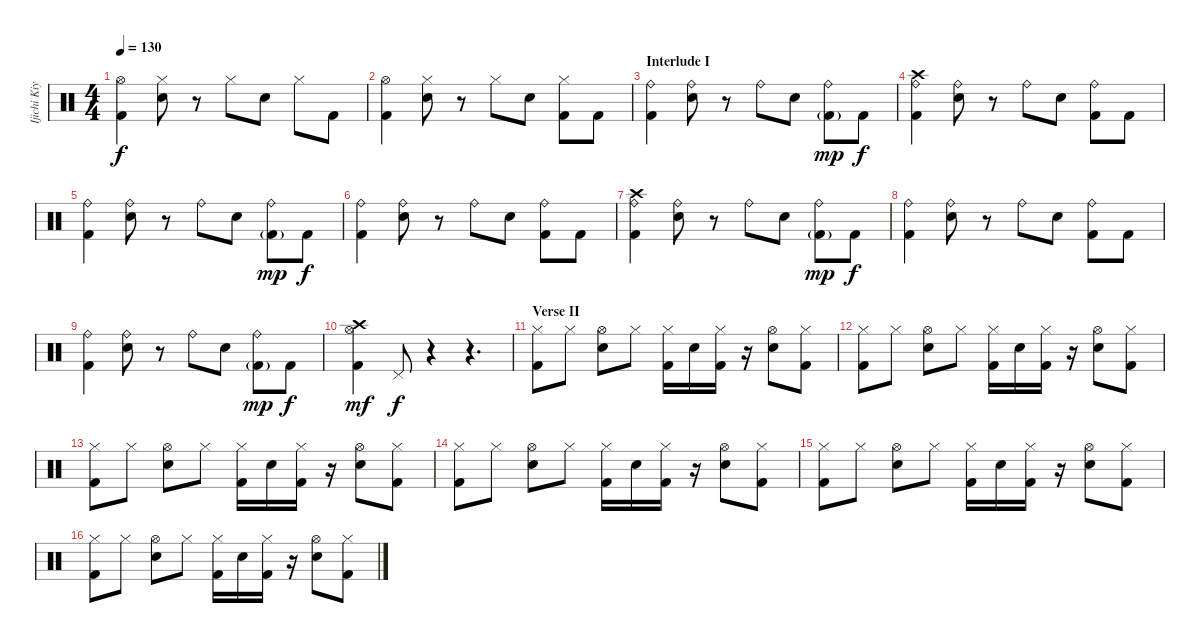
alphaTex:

\track ("Ijichi Kiyoshi (Drums)" "Ijichi Kiy") {instrument percussion}
\staff {score}
\articulation defaults
\ts (4 4)
\tempo 130
\clef neutral
\ks c
("Hi-Hat (open)" "Kick (hit) 2").4{dy f} ("Hi-Hat (closed)" "Snare (hit) 2").8 r.8 "Hi-Hat (closed)".8 "Snare (hit) 2".8 "Hi-Hat (closed)".8 "Kick (hit) 2".8 |
("Hi-Hat (open)" "Kick (hit) 2").4 ("Hi-Hat (closed)" "Snare (hit) 2").8 r.8 "Hi-Hat (closed)".8 "Snare (hit) 2".8 ("Hi-Hat (closed)" "Kick (hit) 2").8 "Kick (hit) 2".8 |
\section ("" "Interlude I")
("Ride (bell)" "Kick (hit) 2").4 ("Ride (bell)" "Snare (hit) 2").8 r.8 "Ride (bell)".8 "Snare (hit) 2".8 ("Ride (bell)" "Kick (hit) 2"{g}).8{dy mp} "Kick (hit) 2".8{dy f} |
("Ride (bell)" "Crash high (hit)" "Kick (hit) 2").4 ("Ride (bell)" "Snare (hit) 2").8 r.8 "Ride (bell)".8 "Snare (hit) 2".8 ("Ride (bell)" "Kick (hit) 2").8 "Kick (hit) 2".8 |
("Ride (bell)" "Kick (hit) 2").4 ("Ride (bell)" "Snare (hit) 2").8 r.8 "Ride (bell)".8 "Snare (hit) 2".8 ("Ride (bell)" "Kick (hit) 2"{g}).8{dy mp} "Kick (hit) 2".8{dy f} |
("Ride (bell)" "Kick (hit) 2").4 ("Ride (bell)" "Snare (hit) 2").8 r.8 "Ride (bell)".8 "Snare (hit) 2".8 ("Ride (bell)" "Kick (hit) 2").8 "Kick (hit) 2".8 |
("Ride (bell)" "Crash high (hit)" "Kick (hit) 2").4 ("Ride (bell)" "Snare (hit) 2").8 r.8 "Ride (bell)".8 "Snare (hit) 2".8 ("Ride (bell)" "Kick (hit) 2"{g}).8{dy mp} "Kick (hit) 2".8{dy f} |
("Ride (bell)" "Kick (hit) 2").4 ("Ride (bell)" "Snare (hit) 2").8 r.8 "Ride (bell)".8 "Snare (hit) 2".8 ("Ride (bell)" "Kick (hit) 2").8 "Kick (hit) 2".8 |
("Ride (bell)" "Kick (hit) 2").4 ("Ride (bell)" "Snare (hit) 2").8 r.8 "Ride (bell)".8 "Snare (hit) 2".8 ("Ride (bell)" "Kick (hit) 2"{g}).8{dy mp} "Kick (hit) 2".8{dy f} |
("Hi-Hat (open)" "Crash high (hit)" "Kick (hit) 2").4{dy mf} "Pedal Hi-Hat (hit)".8{dy f} r.4 r.4{d} |
\section ("" "Verse II")
("Hi-Hat (closed)" "Kick (hit) 2").8 "Hi-Hat (closed)".8 ("Hi-Hat (open)" "Snare (hit) 2").8 "Hi-Hat (closed)".8 ("Hi-Hat (closed)" "Kick (hit) 2").16 "Snare (hit) 2".16 ("Hi-Hat (closed)" "Kick (hit) 2").16 r.16 ("Hi-Hat (open)" "Snare (hit) 2").8 ("Hi-Hat (closed)" "Kick (hit) 2").8 |
("Hi-Hat (closed)" "Kick (hit) 2").8 "Hi-Hat (closed)".8 ("Hi-Hat (open)" "Snare (hit) 2").8 "Hi-Hat (closed)".8 ("Hi-Hat (closed)" "Kick (hit) 2").16 "Snare (hit) 2".16 ("Hi-Hat (closed)" "Kick (hit) 2").16 r.16 ("Hi-Hat (open)" "Snare (hit) 2").8 ("Hi-Hat (closed)" "Kick (hit) 2").8 |
("Hi-Hat (closed)" "Kick (hit) 2").8 "Hi-Hat (closed)".8 ("Hi-Hat (open)" "Snare (hit) 2").8 "Hi-Hat (closed)".8 ("Hi-Hat (closed)" "Kick (hit) 2").16 "Snare (hit) 2".16 ("Hi-Hat (closed)" "Kick (hit) 2").16 r.16 ("Hi-Hat (open)" "Snare (hit) 2").8 ("Hi-Hat (closed)" "Kick (hit) 2").8 |
("Hi-Hat (closed)" "Kick (hit) 2").8 "Hi-Hat (closed)".8 ("Hi-Hat (open)" "Snare (hit) 2").8 "Hi-Hat (closed)".8 ("Hi-Hat (closed)" "Kick (hit) 2").16 "Snare (hit) 2".16 ("Hi-Hat (closed)" "Kick (hit) 2").16 r.16 ("Hi-Hat (open)" "Snare (hit) 2").8 ("Hi-Hat (closed)" "Kick (hit) 2").8 |
("Hi-Hat (closed)" "Kick (hit) 2").8 "Hi-Hat (closed)".8 ("Hi-Hat (open)" "Snare (hit) 2").8 "Hi-Hat (closed)".8 ("Hi-Hat (closed)" "Kick (hit) 2").16 "Snare (hit) 2".16 ("Hi-Hat (closed)" "Kick (hit) 2").16 r.16 ("Hi-Hat (open)" "Snare (hit) 2").8 ("Hi-Hat (closed)" "Kick (hit) 2").8 |
("Hi-Hat (closed)" "Kick (hit) 2").8 "Hi-Hat (closed)".8 ("Hi-Hat (open)" "Snare (hit) 2").8 "Hi-Hat (closed)".8 ("Hi-Hat (closed)" "Kick (hit) 2").16 "Snare (hit) 2".16 ("Hi-Hat (closed)" "Kick (hit) 2").16 r.16 ("Hi-Hat (open)" "Snare (hit) 2").8 ("Hi-Hat (closed)" "Kick (hit) 2").8
